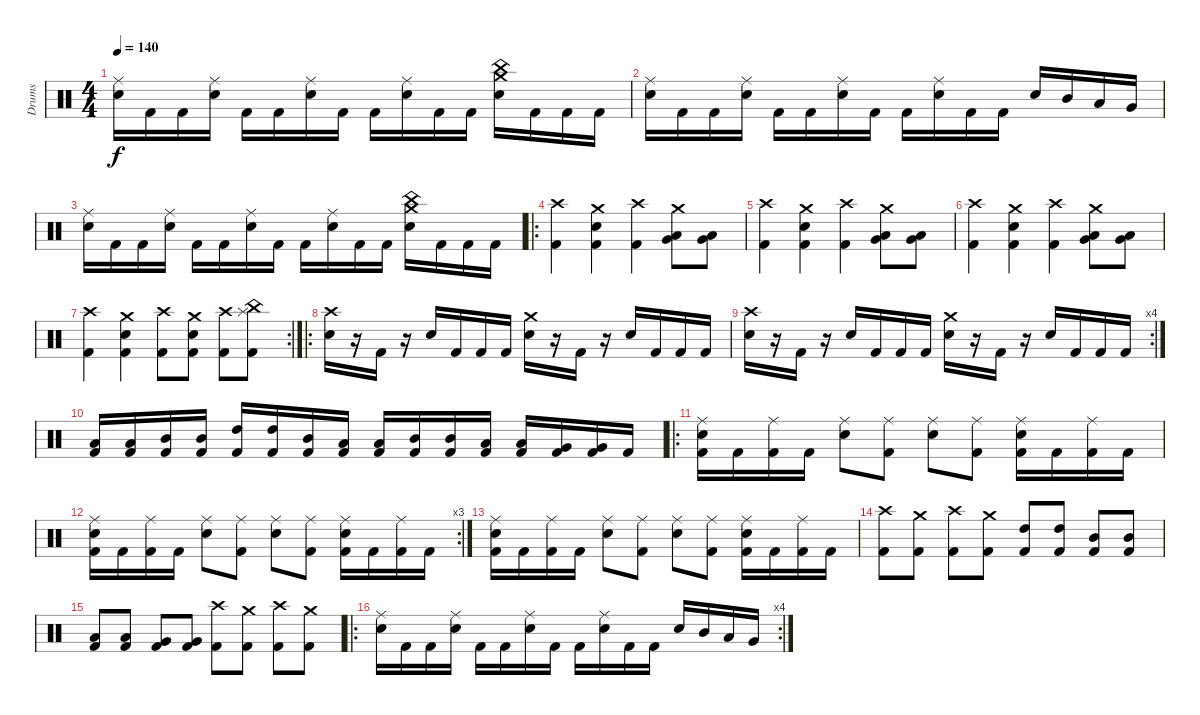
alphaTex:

\track ("Drums" "Drums") {instrument percussion}
\staff {score}
\articulation defaults
\ts (4 4)
\tempo 140
\clef neutral
\ks c
("Ride (middle)" "Snare (hit) 2").16{dy f} "Kick (hit) 2".16 "Kick (hit) 2".16 ("Ride (middle)" "Snare (hit) 2").16 "Kick (hit) 2".16 "Kick (hit) 2".16 ("Ride (middle)" "Snare (hit) 2").16 "Kick (hit) 2".16 "Kick (hit) 2".16 ("Ride (middle)" "Snare (hit) 2").16 "Kick (hit) 2".16 "Kick (hit) 2".16 ("Crash medium (hit)" "China (hit)" "Snare (hit) 2").16 "Kick (hit) 2".16 "Kick (hit) 2".16 "Kick (hit) 2".16 |
("Ride (middle)" "Snare (hit) 2").16 "Kick (hit) 2".16 "Kick (hit) 2".16 ("Ride (middle)" "Snare (hit) 2").16 "Kick (hit) 2".16 "Kick (hit) 2".16 ("Ride (middle)" "Snare (hit) 2").16 "Kick (hit) 2".16 "Kick (hit) 2".16 ("Ride (middle)" "Snare (hit) 2").16 "Kick (hit) 2".16 "Kick (hit) 2".16 "Snare (hit) 2".16 "Mid Tom (hit)".16 "Low Tom (hit)".16 "Very Low Tom (hit)".16 |
("Ride (middle)" "Snare (hit) 2").16 "Kick (hit) 2".16 "Kick (hit) 2".16 ("Ride (middle)" "Snare (hit) 2").16 "Kick (hit) 2".16 "Kick (hit) 2".16 ("Ride (middle)" "Snare (hit) 2").16 "Kick (hit) 2".16 "Kick (hit) 2".16 ("Ride (middle)" "Snare (hit) 2").16 "Kick (hit) 2".16 "Kick (hit) 2".16 ("Crash medium (hit)" "China (hit)" "Snare (hit) 2").16 "Kick (hit) 2".16 "Kick (hit) 2".16 "Kick (hit) 2".16 |
\ro
("Crash high (hit)" "Kick (hit) 2").4 ("Crash medium (hit)" "Snare (hit) 2" "Kick (hit) 2").4 ("Crash high (hit)" "Kick (hit) 2").4 ("Crash medium (hit)" "Low Tom (hit)" "Very Low Tom (hit)").8 ("Low Tom (hit)" "Very Low Tom (hit)").8 |
("Crash high (hit)" "Kick (hit) 2").4 ("Crash medium (hit)" "Snare (hit) 2" "Kick (hit) 2").4 ("Crash high (hit)" "Kick (hit) 2").4 ("Crash medium (hit)" "Low Floor Tom (hit)" "Very Low Tom (hit)").8 ("Low Floor Tom (hit)" "Very Low Tom (hit)").8 |
("Crash high (hit)" "Kick (hit) 2").4 ("Crash medium (hit)" "Snare (hit) 2" "Kick (hit) 2").4 ("Crash high (hit)" "Kick (hit) 2").4 ("Crash medium (hit)" "Low Tom (hit)" "Very Low Tom (hit)").8 ("Low Tom (hit)" "Very Low Tom (hit)").8 |
\rc 2
("Crash high (hit)" "Kick (hit) 2").4 ("Crash medium (hit)" "Snare (hit) 2" "Kick (hit) 2").4 ("Crash high (hit)" "Kick (hit) 2").8 ("Crash medium (hit)" "Snare (hit) 2" "Kick (hit) 2").8 ("Crash high (hit)" "Kick (hit) 2").8 ("China (hit)" "Splash (hit)" "Kick (hit) 2").8 |
\ro
("Crash high (hit)" "Snare (hit) 2").16 r.16 "Kick (hit) 2".16 r.16 "Snare (hit) 2".16 "Kick (hit) 2".16 "Kick (hit) 2".16 "Kick (hit) 2".16 ("Crash medium (hit)" "Snare (hit) 2").16 r.16 "Kick (hit) 2".16 r.16 "Snare (hit) 2".16 "Kick (hit) 2".16 "Kick (hit) 2".16 "Kick (hit) 2".16 |
\rc 4
("Crash high (hit)" "Snare (hit) 2").16 r.16 "Kick (hit) 2".16 r.16 "Snare (hit) 2".16 "Kick (hit) 2".16 "Kick (hit) 2".16 "Kick (hit) 2".16 ("Crash medium (hit)" "Snare (hit) 2").16 r.16 "Kick (hit) 2".16 r.16 "Snare (hit) 2".16 "Kick (hit) 2".16 "Kick (hit) 2".16 "Kick (hit) 2".16 |
("Low Tom (hit)" "Kick (hit) 2").16 ("Low Tom (hit)" "Kick (hit) 2").16 ("Mid Tom (hit)" "Kick (hit) 2").16 ("Mid Tom (hit)" "Kick (hit) 2").16 ("High Tom (hit)" "Kick (hit) 2").16 ("High Tom (hit)" "Kick (hit) 2").16 ("Mid Tom (hit)" "Kick (hit) 2").16 ("Low Tom (hit)" "Kick (hit) 2").16 ("Low Tom (hit)" "Kick (hit) 2").16 ("Mid Tom (hit)" "Kick (hit) 2").16 ("Mid Tom (hit)" "Kick (hit) 2").16 ("Low Tom (hit)" "Kick (hit) 2").16 ("Low Tom (hit)" "Kick (hit) 2").16 ("Very Low Tom (hit)" "Kick (hit) 2").16 ("Very Low Tom (hit)" "Kick (hit) 2").16 "Kick (hit) 2".16 |
\ro
("Ride (middle)" "Snare (hit) 2" "Kick (hit) 2").16 "Kick (hit) 2".16 ("Ride (middle)" "Kick (hit) 2").16 "Kick (hit) 2".16 ("Ride (middle)" "Snare (hit) 2").8 ("Ride (middle)" "Kick (hit) 2").8 ("Ride (middle)" "Snare (hit) 2").8 ("Ride (middle)" "Kick (hit) 2").8 ("Ride (middle)" "Snare (hit) 2" "Kick (hit) 2").16 "Kick (hit) 2".16 ("Ride (middle)" "Kick (hit) 2").16 "Kick (hit) 2".16 |
\rc 3
("Ride (middle)" "Snare (hit) 2" "Kick (hit) 2").16 "Kick (hit) 2".16 ("Ride (middle)" "Kick (hit) 2").16 "Kick (hit) 2".16 ("Ride (middle)" "Snare (hit) 2").8 ("Ride (middle)" "Kick (hit) 2").8 ("Ride (middle)" "Snare (hit) 2").8 ("Ride (middle)" "Kick (hit) 2").8 ("Ride (middle)" "Snare (hit) 2" "Kick (hit) 2").16 "Kick (hit) 2".16 ("Ride (middle)" "Kick (hit) 2").16 "Kick (hit) 2".16 |
("Ride (middle)" "Snare (hit) 2" "Kick (hit) 2").16 "Kick (hit) 2".16 ("Ride (middle)" "Kick (hit) 2").16 "Kick (hit) 2".16 ("Ride (middle)" "Snare (hit) 2").8 ("Ride (middle)" "Kick (hit) 2").8 ("Ride (middle)" "Snare (hit) 2").8 ("Ride (middle)" "Kick (hit) 2").8 ("Ride (middle)" "Snare (hit) 2" "Kick (hit) 2").16 "Kick (hit) 2".16 ("Ride (middle)" "Kick (hit) 2").16 "Kick (hit) 2".16 |
("Crash high (hit)" "Kick (hit) 2").8 ("Crash medium (hit)" "Kick (hit) 2").8 ("Crash high (hit)" "Kick (hit) 2").8 ("Crash medium (hit)" "Kick (hit) 2").8 ("High Tom (hit)" "Kick (hit) 2").8 ("High Tom (hit)" "Kick (hit) 2").8 ("Mid Tom (hit)" "Kick (hit) 2").8 ("Mid Tom (hit)" "Kick (hit) 2").8 |
("Low Tom (hit)" "Kick (hit) 2").8 ("Low Tom (hit)" "Kick (hit) 2").8 ("Very Low Tom (hit)" "Kick (hit) 2").8 ("Very Low Tom (hit)" "Kick (hit) 2").8 ("Crash high (hit)" "Kick (hit) 2").8 ("Crash medium (hit)" "Kick (hit) 2").8 ("Crash high (hit)" "Kick (hit) 2").8 ("Crash medium (hit)" "Kick (hit) 2").8 |
\ro
\rc 4
("Ride (middle)" "Snare (hit) 2").16 "Kick (hit) 2".16 "Kick (hit) 2".16 ("Ride (middle)" "Snare (hit) 2").16 "Kick (hit) 2".16 "Kick (hit) 2".16 ("Ride (middle)" "Snare (hit) 2").16 "Kick (hit) 2".16 "Kick (hit) 2".16 ("Ride (middle)" "Snare (hit) 2").16 "Kick (hit) 2".16 "Kick (hit) 2".16 "Snare (hit) 2".16 "Mid Tom (hit)".16 "Low Tom (hit)".16 "Very Low Tom (hit)".16
